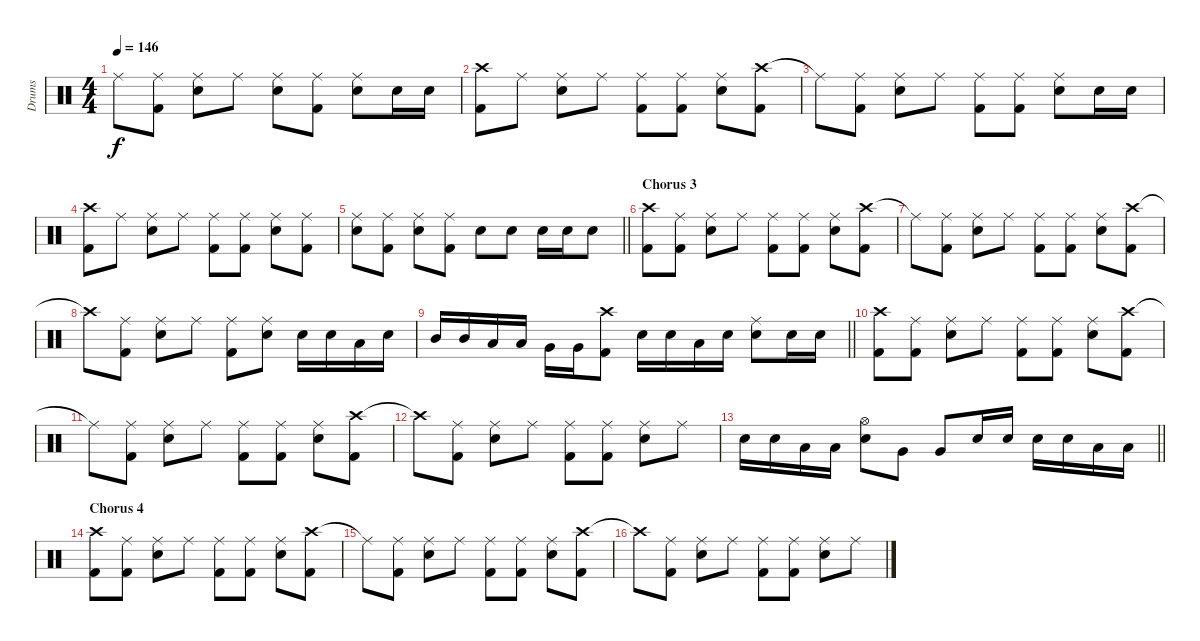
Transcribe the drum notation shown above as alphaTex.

\track ("Drums" "Drums") {instrument percussion}
\staff {score}
\articulation defaults
\ts (4 4)
\tempo 146
\clef neutral
\ks c "Ride (middle)"{t}.8{dy f}
("Ride (middle)" "Kick (hit) 2").8 ("Ride (middle)" "Snare (hit) 2").8 "Ride (middle)".8 ("Ride (middle)" "Snare (hit) 2").8 ("Ride (middle)" "Kick (hit) 2").8 ("Ride (middle)" "Snare (hit) 2").8 "Snare (hit) 2".16 "Snare (hit) 2".16 |
("Crash high (hit)" "Kick (hit) 2").8 "Ride (middle)".8 ("Ride (middle)" "Snare (hit) 2").8 "Ride (middle)".8 ("Ride (middle)" "Kick (hit) 2").8 ("Ride (middle)" "Kick (hit) 2").8 ("Ride (middle)" "Snare (hit) 2").8 ("Crash high (hit)" "Kick (hit) 2").8 |
"Ride (middle)"{t}.8 ("Ride (middle)" "Kick (hit) 2").8 ("Ride (middle)" "Snare (hit) 2").8 "Ride (middle)".8 ("Ride (middle)" "Kick (hit) 2").8 ("Ride (middle)" "Kick (hit) 2").8 ("Ride (middle)" "Snare (hit) 2").8 "Snare (hit) 2".16 "Snare (hit) 2".16 |
("Crash high (hit)" "Kick (hit) 2").8 "Ride (middle)".8 ("Ride (middle)" "Snare (hit) 2").8 "Ride (middle)".8 ("Ride (middle)" "Kick (hit) 2").8 ("Ride (middle)" "Kick (hit) 2").8 ("Ride (middle)" "Snare (hit) 2").8 ("Ride (middle)" "Kick (hit) 2").8 |
\barLineRight lightlight
("Ride (middle)" "Snare (hit) 2").8 ("Ride (middle)" "Kick (hit) 2").8 ("Ride (middle)" "Snare (hit) 2").8 ("Ride (middle)" "Kick (hit) 2").8 "Snare (hit) 2".8 "Snare (hit) 2".8 "Snare (hit) 2".16 "Snare (hit) 2".16 "Snare (hit) 2".8 |
\section ("" "Chorus 3")
("Crash high (hit)" "Kick (hit) 2").8 ("Ride (middle)" "Kick (hit) 2").8 ("Ride (middle)" "Snare (hit) 2").8 "Ride (middle)".8 ("Ride (middle)" "Kick (hit) 2").8 ("Ride (middle)" "Kick (hit) 2").8 ("Ride (middle)" "Snare (hit) 2").8 ("Crash high (hit)" "Kick (hit) 2").8 |
"Ride (middle)"{t}.8 ("Ride (middle)" "Kick (hit) 2").8 ("Ride (middle)" "Snare (hit) 2").8 "Ride (middle)".8 ("Ride (middle)" "Kick (hit) 2").8 ("Ride (middle)" "Kick (hit) 2").8 ("Ride (middle)" "Snare (hit) 2").8 ("Crash high (hit)" "Kick (hit) 2").8 |
"Crash high (hit)"{t}.8 ("Ride (middle)" "Kick (hit) 2").8 ("Ride (middle)" "Snare (hit) 2").8 "Ride (middle)".8 ("Ride (middle)" "Kick (hit) 2").8 ("Ride (middle)" "Snare (hit) 2").8 "Snare (hit) 2".16 "Snare (hit) 2".16 "Low Tom (hit)".16 "Snare (hit) 2".16 |
\barLineRight lightlight "Mid Tom (hit)".16 "Mid Tom (hit)".16 "Low Tom (hit)".16 "Low Tom (hit)".16 "Very Low Tom (hit)".16 "Very Low Tom (hit)".16
("Crash high (hit)" "Kick (hit) 2").8 "Snare (hit) 2".16 "Snare (hit) 2".16 "Low Tom (hit)".16 "Snare (hit) 2".16 ("Ride (middle)" "Snare (hit) 2").8 "Snare (hit) 2".16 "Snare (hit) 2".16 |
("Crash high (hit)" "Kick (hit) 2").8 ("Ride (middle)" "Kick (hit) 2").8 ("Ride (middle)" "Snare (hit) 2").8 "Ride (middle)".8 ("Ride (middle)" "Kick (hit) 2").8 ("Ride (middle)" "Kick (hit) 2").8 ("Ride (middle)" "Snare (hit) 2").8 ("Crash high (hit)" "Kick (hit) 2").8 |
"Ride (middle)"{t}.8 ("Ride (middle)" "Kick (hit) 2").8 ("Ride (middle)" "Snare (hit) 2").8 "Ride (middle)".8 ("Ride (middle)" "Kick (hit) 2").8 ("Ride (middle)" "Kick (hit) 2").8 ("Ride (middle)" "Snare (hit) 2").8 ("Crash high (hit)" "Kick (hit) 2").8 |
"Crash high (hit)"{t}.8 ("Ride (middle)" "Kick (hit) 2").8 ("Ride (middle)" "Snare (hit) 2").8 "Ride (middle)".8 ("Ride (middle)" "Kick (hit) 2").8 ("Ride (middle)" "Kick (hit) 2").8 ("Ride (middle)" "Snare (hit) 2").8 "Ride (middle)".8 |
\barLineRight lightlight "Snare (hit) 2".16 "Snare (hit) 2".16 "Low Tom (hit)".16 "Low Tom (hit)".16
("Hi-Hat (open)" "Snare (hit) 2").8 "Very Low Tom (hit)".8 "Very Low Tom (hit)".8 "Snare (hit) 2".16 "Snare (hit) 2".16 "Snare (hit) 2".16 "Snare (hit) 2".16 "Low Tom (hit)".16 "Low Tom (hit)".16 |
\section ("" "Chorus 4")
("Crash high (hit)" "Kick (hit) 2").8 ("Ride (middle)" "Kick (hit) 2").8 ("Ride (middle)" "Snare (hit) 2").8 "Ride (middle)".8 ("Ride (middle)" "Kick (hit) 2").8 ("Ride (middle)" "Kick (hit) 2").8 ("Ride (middle)" "Snare (hit) 2").8 ("Crash high (hit)" "Kick (hit) 2").8 |
"Ride (middle)"{t}.8 ("Ride (middle)" "Kick (hit) 2").8 ("Ride (middle)" "Snare (hit) 2").8 "Ride (middle)".8 ("Ride (middle)" "Kick (hit) 2").8 ("Ride (middle)" "Kick (hit) 2").8 ("Ride (middle)" "Snare (hit) 2").8 ("Crash high (hit)" "Kick (hit) 2").8 |
"Crash high (hit)"{t}.8 ("Ride (middle)" "Kick (hit) 2").8 ("Ride (middle)" "Snare (hit) 2").8 "Ride (middle)".8 ("Ride (middle)" "Kick (hit) 2").8 ("Ride (middle)" "Kick (hit) 2").8 ("Ride (middle)" "Snare (hit) 2").8 "Ride (middle)".8
